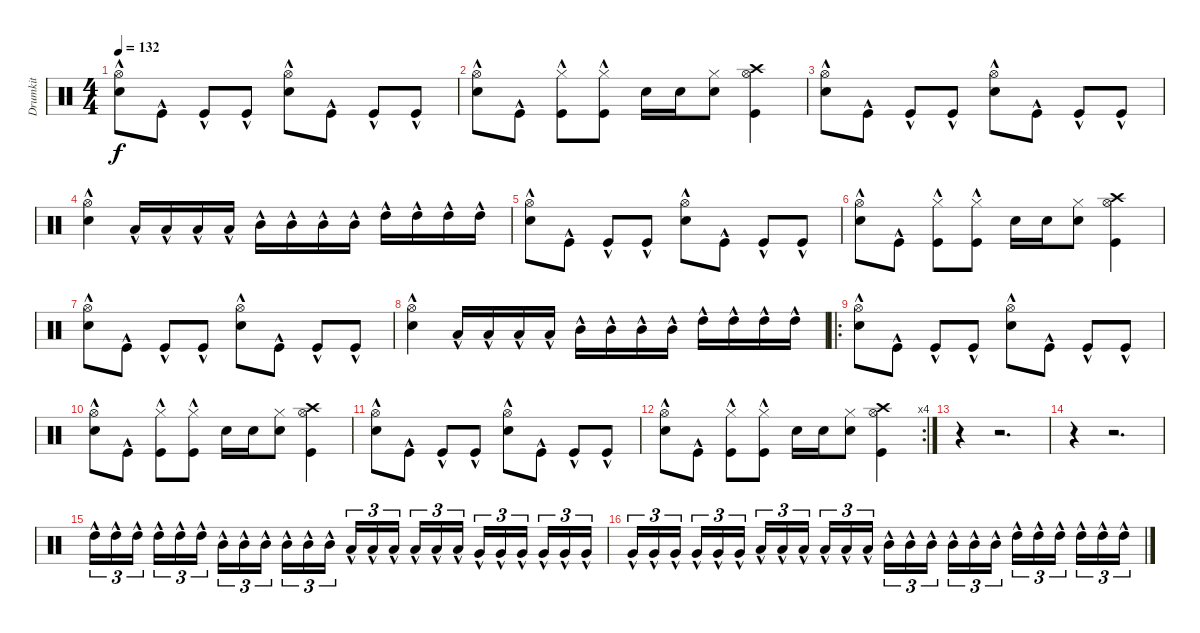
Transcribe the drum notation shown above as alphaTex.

\track ("Drumkit" "Drumkit") {instrument percussion}
\staff {score}
\articulation defaults
\ts (4 4)
\tempo 132
\clef neutral
\ks c
("Hi-Hat (open)"{hac} "Snare (hit) 2"{hac}).8{dy f} "Kick (hit)"{hac}.8 "Kick (hit)"{hac}.8 "Kick (hit)"{hac}.8 ("Snare (hit) 2"{hac} "Hi-Hat (open)"{hac}).8 "Kick (hit)"{hac}.8 "Kick (hit)"{hac}.8 "Kick (hit)"{hac}.8 |
("Hi-Hat (open)"{hac} "Snare (hit) 2"{hac}).8 "Kick (hit)"{hac}.8 ("Kick (hit)"{hac} "Hi-Hat (closed)").8 ("Kick (hit)"{hac} "Hi-Hat (closed)").8 "Snare (hit) 2".16 "Snare (hit) 2".16 ("Snare (hit) 2" "Hi-Hat (closed)").8 ("Kick (hit)" "Hi-Hat (open)" "Crash high (hit)").4 |
("Hi-Hat (open)"{hac} "Snare (hit) 2"{hac}).8 "Kick (hit)"{hac}.8 "Kick (hit)"{hac}.8 "Kick (hit)"{hac}.8 ("Hi-Hat (open)"{hac} "Snare (hit) 2"{hac}).8 "Kick (hit)"{hac}.8 "Kick (hit)"{hac}.8 "Kick (hit)"{hac}.8 |
("Hi-Hat (open)"{hac} "Snare (hit) 2"{hac}).4 "Low Tom (hit)"{hac}.16 "Low Tom (hit)"{hac}.16 "Low Tom (hit)"{hac}.16 "Low Tom (hit)"{hac}.16 "Mid Tom (hit)"{hac}.16 "Mid Tom (hit)"{hac}.16 "Mid Tom (hit)"{hac}.16 "Mid Tom (hit)"{hac}.16 "High Tom (hit)"{hac}.16 "High Tom (hit)"{hac}.16 "High Tom (hit)"{hac}.16 "High Tom (hit)"{hac}.16 |
("Hi-Hat (open)"{hac} "Snare (hit) 2"{hac}).8 "Kick (hit)"{hac}.8 "Kick (hit)"{hac}.8 "Kick (hit)"{hac}.8 ("Snare (hit) 2"{hac} "Hi-Hat (open)"{hac}).8 "Kick (hit)"{hac}.8 "Kick (hit)"{hac}.8 "Kick (hit)"{hac}.8 |
("Hi-Hat (open)"{hac} "Snare (hit) 2"{hac}).8 "Kick (hit)"{hac}.8 ("Kick (hit)"{hac} "Hi-Hat (closed)").8 ("Kick (hit)"{hac} "Hi-Hat (closed)").8 "Snare (hit) 2".16 "Snare (hit) 2".16 ("Snare (hit) 2" "Hi-Hat (closed)").8 ("Kick (hit)" "Hi-Hat (open)" "Crash high (hit)").4 |
("Hi-Hat (open)"{hac} "Snare (hit) 2"{hac}).8 "Kick (hit)"{hac}.8 "Kick (hit)"{hac}.8 "Kick (hit)"{hac}.8 ("Hi-Hat (open)"{hac} "Snare (hit) 2"{hac}).8 "Kick (hit)"{hac}.8 "Kick (hit)"{hac}.8 "Kick (hit)"{hac}.8 |
("Hi-Hat (open)"{hac} "Snare (hit) 2"{hac}).4 "Low Tom (hit)"{hac}.16 "Low Tom (hit)"{hac}.16 "Low Tom (hit)"{hac}.16 "Low Tom (hit)"{hac}.16 "Mid Tom (hit)"{hac}.16 "Mid Tom (hit)"{hac}.16 "Mid Tom (hit)"{hac}.16 "Mid Tom (hit)"{hac}.16 "High Tom (hit)"{hac}.16 "High Tom (hit)"{hac}.16 "High Tom (hit)"{hac}.16 "High Tom (hit)"{hac}.16 |
\ro
("Hi-Hat (open)"{hac} "Snare (hit) 2"{hac}).8 "Kick (hit)"{hac}.8 "Kick (hit)"{hac}.8 "Kick (hit)"{hac}.8 ("Snare (hit) 2"{hac} "Hi-Hat (open)"{hac}).8 "Kick (hit)"{hac}.8 "Kick (hit)"{hac}.8 "Kick (hit)"{hac}.8 |
("Hi-Hat (open)"{hac} "Snare (hit) 2"{hac}).8 "Kick (hit)"{hac}.8 ("Kick (hit)"{hac} "Hi-Hat (closed)").8 ("Kick (hit)"{hac} "Hi-Hat (closed)").8 "Snare (hit) 2".16 "Snare (hit) 2".16 ("Snare (hit) 2" "Hi-Hat (closed)").8 ("Kick (hit)" "Hi-Hat (open)" "Crash high (hit)").4 |
("Hi-Hat (open)"{hac} "Snare (hit) 2"{hac}).8 "Kick (hit)"{hac}.8 "Kick (hit)"{hac}.8 "Kick (hit)"{hac}.8 ("Snare (hit) 2"{hac} "Hi-Hat (open)"{hac}).8 "Kick (hit)"{hac}.8 "Kick (hit)"{hac}.8 "Kick (hit)"{hac}.8 |
\rc 4
("Hi-Hat (open)"{hac} "Snare (hit) 2"{hac}).8 "Kick (hit)"{hac}.8 ("Kick (hit)"{hac} "Hi-Hat (closed)").8 ("Kick (hit)"{hac} "Hi-Hat (closed)").8 "Snare (hit) 2".16 "Snare (hit) 2".16 ("Snare (hit) 2" "Hi-Hat (closed)").8 ("Kick (hit)" "Hi-Hat (open)" "Crash high (hit)").4 |
r.4 r.2{d} |
r.4 r.2{d} |
"High Tom (hit)"{hac}.16{tu (3 2)} "High Tom (hit)"{hac}.16{tu (3 2)} "High Tom (hit)"{hac}.16{tu (3 2)} "High Tom (hit)"{hac}.16{tu (3 2)} "High Tom (hit)"{hac}.16{tu (3 2)} "High Tom (hit)"{hac}.16{tu (3 2)} "Mid Tom (hit)"{hac}.16{tu (3 2)} "Mid Tom (hit)"{hac}.16{tu (3 2)} "Mid Tom (hit)"{hac}.16{tu (3 2)} "Mid Tom (hit)"{hac}.16{tu (3 2)} "Mid Tom (hit)"{hac}.16{tu (3 2)} "Mid Tom (hit)"{hac}.16{tu (3 2)} "Low Tom (hit)"{hac}.16{tu (3 2)} "Low Tom (hit)"{hac}.16{tu (3 2)} "Low Tom (hit)"{hac}.16{tu (3 2)} "Low Tom (hit)"{hac}.16{tu (3 2)} "Low Tom (hit)"{hac}.16{tu (3 2)} "Low Tom (hit)"{hac}.16{tu (3 2)} "Very Low Tom (hit)"{hac}.16{tu (3 2)} "Very Low Tom (hit)"{hac}.16{tu (3 2)} "Very Low Tom (hit)"{hac}.16{tu (3 2)} "Very Low Tom (hit)"{hac}.16{tu (3 2)} "Very Low Tom (hit)"{hac}.16{tu (3 2)} "Very Low Tom (hit)"{hac}.16{tu (3 2)} |
"Very Low Tom (hit)"{hac}.16{tu (3 2)} "Very Low Tom (hit)"{hac}.16{tu (3 2)} "Very Low Tom (hit)"{hac}.16{tu (3 2)} "Very Low Tom (hit)"{hac}.16{tu (3 2)} "Very Low Tom (hit)"{hac}.16{tu (3 2)} "Very Low Tom (hit)"{hac}.16{tu (3 2)} "Low Tom (hit)"{hac}.16{tu (3 2)} "Low Tom (hit)"{hac}.16{tu (3 2)} "Low Tom (hit)"{hac}.16{tu (3 2)} "Low Tom (hit)"{hac}.16{tu (3 2)} "Low Tom (hit)"{hac}.16{tu (3 2)} "Low Tom (hit)"{hac}.16{tu (3 2)} "Mid Tom (hit)"{hac}.16{tu (3 2)} "Mid Tom (hit)"{hac}.16{tu (3 2)} "Mid Tom (hit)"{hac}.16{tu (3 2)} "Mid Tom (hit)"{hac}.16{tu (3 2)} "Mid Tom (hit)"{hac}.16{tu (3 2)} "Mid Tom (hit)"{hac}.16{tu (3 2)} "High Tom (hit)"{hac}.16{tu (3 2)} "High Tom (hit)"{hac}.16{tu (3 2)} "High Tom (hit)"{hac}.16{tu (3 2)} "High Tom (hit)"{hac}.16{tu (3 2)} "High Tom (hit)"{hac}.16{tu (3 2)} "High Tom (hit)"{hac}.16{tu (3 2)}
